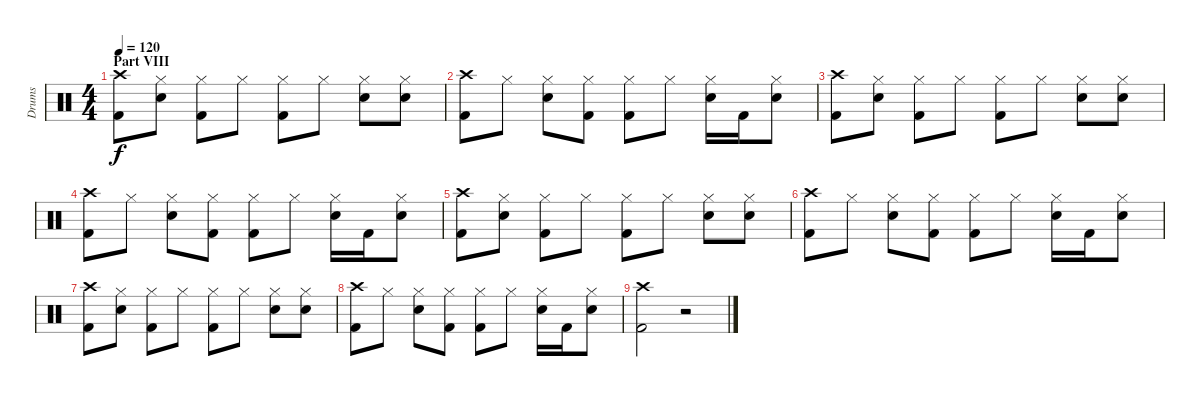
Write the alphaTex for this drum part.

\track ("Drums" "Drums") {instrument percussion}
\staff {score}
\articulation defaults
\ts (4 4)
\section ("" "Part VIII")
\tempo 120
\clef neutral
\ks c
("Crash high (hit)" "Kick (hit) 2").8{dy f} ("Hi-Hat (closed)" "Snare (hit) 2").8 ("Hi-Hat (closed)" "Kick (hit) 2").8 "Hi-Hat (closed)".8 ("Hi-Hat (closed)" "Kick (hit) 2").8 "Hi-Hat (closed)".8 ("Hi-Hat (closed)" "Snare (hit) 2").8 ("Hi-Hat (closed)" "Snare (hit) 2").8 |
("Crash high (hit)" "Kick (hit) 2").8 "Hi-Hat (closed)".8 ("Hi-Hat (closed)" "Snare (hit) 2").8 ("Hi-Hat (closed)" "Kick (hit) 2").8 ("Hi-Hat (closed)" "Kick (hit) 2").8 "Hi-Hat (closed)".8 ("Hi-Hat (closed)" "Snare (hit) 2").16 "Kick (hit) 2".16 ("Hi-Hat (closed)" "Snare (hit) 2").8 |
("Crash high (hit)" "Kick (hit) 2").8 ("Hi-Hat (closed)" "Snare (hit) 2").8 ("Hi-Hat (closed)" "Kick (hit) 2").8 "Hi-Hat (closed)".8 ("Hi-Hat (closed)" "Kick (hit) 2").8 "Hi-Hat (closed)".8 ("Hi-Hat (closed)" "Snare (hit) 2").8 ("Hi-Hat (closed)" "Snare (hit) 2").8 |
("Crash high (hit)" "Kick (hit) 2").8 "Hi-Hat (closed)".8 ("Hi-Hat (closed)" "Snare (hit) 2").8 ("Hi-Hat (closed)" "Kick (hit) 2").8 ("Hi-Hat (closed)" "Kick (hit) 2").8 "Hi-Hat (closed)".8 ("Hi-Hat (closed)" "Snare (hit) 2").16 "Kick (hit) 2".16 ("Hi-Hat (closed)" "Snare (hit) 2").8 |
("Crash high (hit)" "Kick (hit) 2").8 ("Hi-Hat (closed)" "Snare (hit) 2").8 ("Hi-Hat (closed)" "Kick (hit) 2").8 "Hi-Hat (closed)".8 ("Hi-Hat (closed)" "Kick (hit) 2").8 "Hi-Hat (closed)".8 ("Hi-Hat (closed)" "Snare (hit) 2").8 ("Hi-Hat (closed)" "Snare (hit) 2").8 |
("Crash high (hit)" "Kick (hit) 2").8 "Hi-Hat (closed)".8 ("Hi-Hat (closed)" "Snare (hit) 2").8 ("Hi-Hat (closed)" "Kick (hit) 2").8 ("Hi-Hat (closed)" "Kick (hit) 2").8 "Hi-Hat (closed)".8 ("Hi-Hat (closed)" "Snare (hit) 2").16 "Kick (hit) 2".16 ("Hi-Hat (closed)" "Snare (hit) 2").8 |
("Crash high (hit)" "Kick (hit) 2").8 ("Hi-Hat (closed)" "Snare (hit) 2").8 ("Hi-Hat (closed)" "Kick (hit) 2").8 "Hi-Hat (closed)".8 ("Hi-Hat (closed)" "Kick (hit) 2").8 "Hi-Hat (closed)".8 ("Hi-Hat (closed)" "Snare (hit) 2").8 ("Hi-Hat (closed)" "Snare (hit) 2").8 |
("Crash high (hit)" "Kick (hit) 2").8 "Hi-Hat (closed)".8 ("Hi-Hat (closed)" "Snare (hit) 2").8 ("Hi-Hat (closed)" "Kick (hit) 2").8 ("Hi-Hat (closed)" "Kick (hit) 2").8 "Hi-Hat (closed)".8 ("Hi-Hat (closed)" "Snare (hit) 2").16 "Kick (hit) 2".16 ("Hi-Hat (closed)" "Snare (hit) 2").8 |
("Crash high (hit)" "Kick (hit) 2").2 r.2
